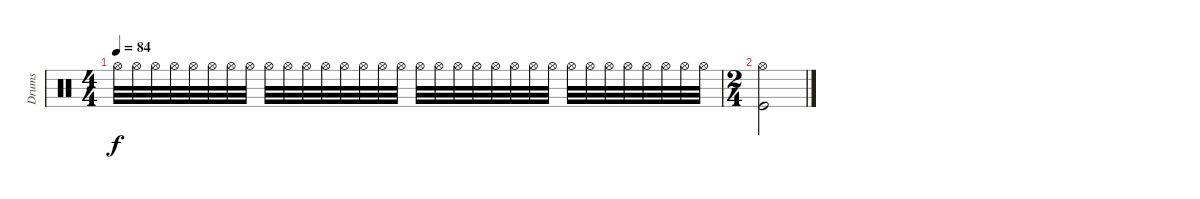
\track ("Drums" "Drums") {instrument percussion}
\staff {score}
\articulation defaults
\ts (4 4)
\tempo 84
\clef neutral
\ks c "Hi-Hat (open)".32{dy f} "Hi-Hat (open)".32 "Hi-Hat (open)".32 "Hi-Hat (open)".32 "Hi-Hat (open)".32 "Hi-Hat (open)".32 "Hi-Hat (open)".32 "Hi-Hat (open)".32 "Hi-Hat (open)".32 "Hi-Hat (open)".32 "Hi-Hat (open)".32 "Hi-Hat (open)".32 "Hi-Hat (open)".32 "Hi-Hat (open)".32 "Hi-Hat (open)".32 "Hi-Hat (open)".32 "Hi-Hat (open)".32 "Hi-Hat (open)".32 "Hi-Hat (open)".32 "Hi-Hat (open)".32 "Hi-Hat (open)".32 "Hi-Hat (open)".32 "Hi-Hat (open)".32 "Hi-Hat (open)".32 "Hi-Hat (open)".32 "Hi-Hat (open)".32 "Hi-Hat (open)".32 "Hi-Hat (open)".32 "Hi-Hat (open)".32 "Hi-Hat (open)".32 "Hi-Hat (open)".32 "Hi-Hat (open)".32
|
\ts (2 4)
("Hi-Hat (open)" "Kick (hit)").2
